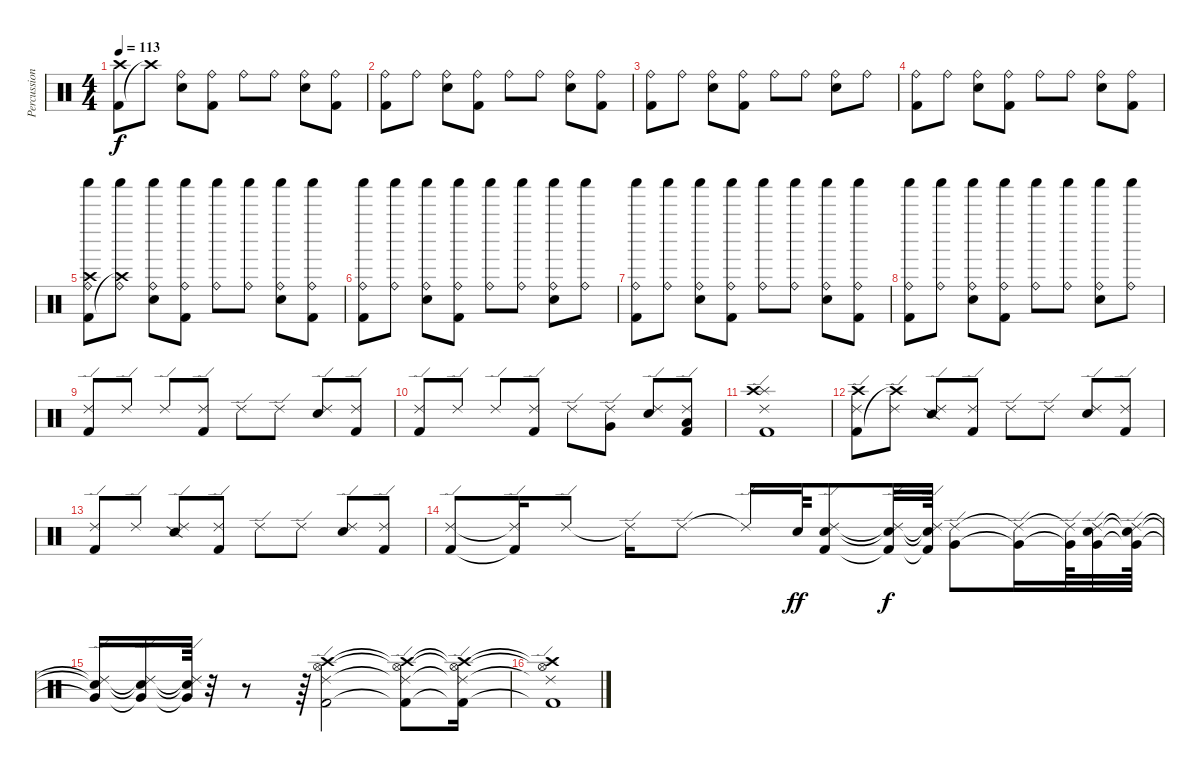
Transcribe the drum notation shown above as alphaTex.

\track ("Percussion" "Percussion") {instrument percussion}
\staff {score}
\articulation defaults
\ts (4 4)
\tempo 113
\clef neutral
\ks c
("Kick (hit) 2" "Crash high (hit)").8{dy f} "Crash high (hit)"{t}.8 ("Ride (bell)" "Electric Snare (hit)").8 ("Ride (bell)" "Kick (hit) 2").8 "Ride (bell)".8 "Ride (bell)".8 ("Ride (bell)" "Electric Snare (hit)").8 ("Ride (bell)" "Kick (hit) 2").8 |
("Ride (bell)" "Kick (hit) 2").8 "Ride (bell)".8 ("Ride (bell)" "Electric Snare (hit)").8 ("Ride (bell)" "Kick (hit) 2").8 "Ride (bell)".8 "Ride (bell)".8 ("Ride (bell)" "Electric Snare (hit)").8 ("Ride (bell)" "Kick (hit) 2").8 |
("Ride (bell)" "Kick (hit) 2").8 "Ride (bell)".8 ("Ride (bell)" "Electric Snare (hit)").8 ("Ride (bell)" "Kick (hit) 2").8 "Ride (bell)".8 "Ride (bell)".8 ("Ride (bell)" "Electric Snare (hit)").8 "Ride (bell)".8 |
("Ride (bell)" "Kick (hit) 2").8 "Ride (bell)".8 ("Ride (bell)" "Electric Snare (hit)").8 ("Ride (bell)" "Kick (hit) 2").8 "Ride (bell)".8 "Ride (bell)".8 ("Ride (bell)" "Electric Snare (hit)").8 ("Ride (bell)" "Kick (hit) 2").8 |
("Shaker (hit)" "Ride (bell)" "Kick (hit) 2" "Crash high (hit)").8 ("Shaker (hit)" "Ride (bell)" "Crash high (hit)"{t}).8 ("Shaker (hit)" "Ride (bell)" "Electric Snare (hit)").8 ("Shaker (hit)" "Ride (bell)" "Kick (hit) 2").8 ("Shaker (hit)" "Ride (bell)").8 ("Shaker (hit)" "Ride (bell)").8 ("Shaker (hit)" "Ride (bell)" "Electric Snare (hit)").8 ("Shaker (hit)" "Ride (bell)" "Kick (hit) 2").8 |
("Shaker (hit)" "Ride (bell)" "Kick (hit) 2").8 ("Shaker (hit)" "Ride (bell)").8 ("Shaker (hit)" "Ride (bell)" "Electric Snare (hit)").8 ("Shaker (hit)" "Ride (bell)" "Kick (hit) 2").8 ("Shaker (hit)" "Ride (bell)").8 ("Shaker (hit)" "Ride (bell)").8 ("Shaker (hit)" "Ride (bell)" "Electric Snare (hit)").8 ("Shaker (hit)" "Ride (bell)").8 |
("Shaker (hit)" "Ride (bell)" "Kick (hit) 2").8 ("Shaker (hit)" "Ride (bell)").8 ("Shaker (hit)" "Ride (bell)" "Electric Snare (hit)").8 ("Shaker (hit)" "Ride (bell)" "Kick (hit) 2").8 ("Shaker (hit)" "Ride (bell)").8 ("Shaker (hit)" "Ride (bell)").8 ("Shaker (hit)" "Ride (bell)" "Electric Snare (hit)").8 ("Shaker (hit)" "Ride (bell)" "Kick (hit) 2").8 |
("Shaker (hit)" "Ride (bell)" "Kick (hit) 2").8 ("Shaker (hit)" "Ride (bell)").8 ("Shaker (hit)" "Ride (bell)" "Electric Snare (hit)").8 ("Shaker (hit)" "Ride (bell)" "Kick (hit) 2").8 ("Shaker (hit)" "Ride (bell)").8 ("Shaker (hit)" "Ride (bell)").8 ("Shaker (hit)" "Ride (bell)" "Electric Snare (hit)").8 ("Shaker (hit)" "Ride (bell)").8 |
("Ride (edge) 2" "Kick (hit) 2").8 "Ride (edge) 2".8 "Ride (edge) 2".8 ("Ride (edge) 2" "Kick (hit) 2").8 "Ride (edge) 2".8 "Ride (edge) 2".8 ("Ride (edge) 2" "Electric Snare (hit)").8 ("Ride (edge) 2" "Kick (hit) 2").8 |
("Ride (edge) 2" "Kick (hit) 2").8 "Ride (edge) 2".8 "Ride (edge) 2".8 ("Ride (edge) 2" "Kick (hit) 2").8 "Ride (edge) 2".8 ("Ride (edge) 2" "Very Low Tom (hit)").8 ("Ride (edge) 2" "Electric Snare (hit)").8 ("Ride (edge) 2" "Kick (hit) 2" "Low Floor Tom (hit)").8 |
("Splash (hit)" "Ride (edge) 2" "Kick (hit) 2" "Crash high (hit)").1 |
("Ride (edge) 2" "Kick (hit) 2" "Crash high (hit)").8 ("Ride (edge) 2" "Crash high (hit)"{t}).8 ("Ride (edge) 2" "Snare (side stick) 2").8 ("Ride (edge) 2" "Kick (hit) 2").8 "Ride (edge) 2".8 "Ride (edge) 2".8 ("Ride (edge) 2" "Electric Snare (hit)").8 ("Ride (edge) 2" "Kick (hit) 2").8 |
("Ride (edge) 2" "Kick (hit) 2").8 "Ride (edge) 2".8 ("Ride (edge) 2" "Snare (side stick) 2").8 ("Ride (edge) 2" "Kick (hit) 2").8 "Ride (edge) 2".8 "Ride (edge) 2".8 ("Ride (edge) 2" "Electric Snare (hit)").8 ("Ride (edge) 2" "Kick (hit) 2").8 |
("Ride (edge) 2" "Kick (hit) 2").8 ("Ride (edge) 2"{t} "Kick (hit) 2"{t}).16 "Ride (edge) 2".8 "Ride (edge) 2"{t}.16 "Ride (edge) 2".8 "Ride (edge) 2"{t}.16 "Snare (hit) 2".64{dy ff} ("Ride (edge) 2" "Kick (hit) 2" "Snare (hit) 2").8 ("Ride (edge) 2"{t} "Kick (hit) 2"{t} "Snare (hit) 2"{t}).32{dy f} ("Ride (edge) 2"{t} "Kick (hit) 2"{t} "Snare (hit) 2"{t}).64 ("Ride (edge) 2" "Very Low Tom (hit)").8 ("Ride (edge) 2"{t} "Very Low Tom (hit)"{t}).16 ("Ride (edge) 2"{t} "Very Low Tom (hit)"{t}).64 ("Ride (edge) 2" "Electric Snare (hit)" "Very Low Tom (hit)").32 ("Ride (edge) 2"{t} "Electric Snare (hit)"{t} "Very Low Tom (hit)"{t}).64 |
("Ride (edge) 2"{t} "Electric Snare (hit)"{t} "Very Low Tom (hit)"{t}).16 ("Ride (edge) 2"{t} "Electric Snare (hit)"{t} "Very Low Tom (hit)"{t}).16 ("Ride (edge) 2"{t} "Electric Snare (hit)"{t} "Very Low Tom (hit)"{t}).64 r.32 r.8 r.64 ("Ride (edge) 2" "Kick (hit) 2" "Crash high (hit)" "Hi-Hat (open)").2 ("Ride (edge) 2"{t} "Kick (hit) 2"{t} "Crash high (hit)"{t} "Hi-Hat (open)"{t}).8 ("Ride (edge) 2"{t} "Kick (hit) 2"{t} "Crash high (hit)"{t} "Hi-Hat (open)"{t}).16 |
("Ride (edge) 2"{t} "Kick (hit) 2"{t} "Crash high (hit)"{t} "Hi-Hat (open)"{t}).1
